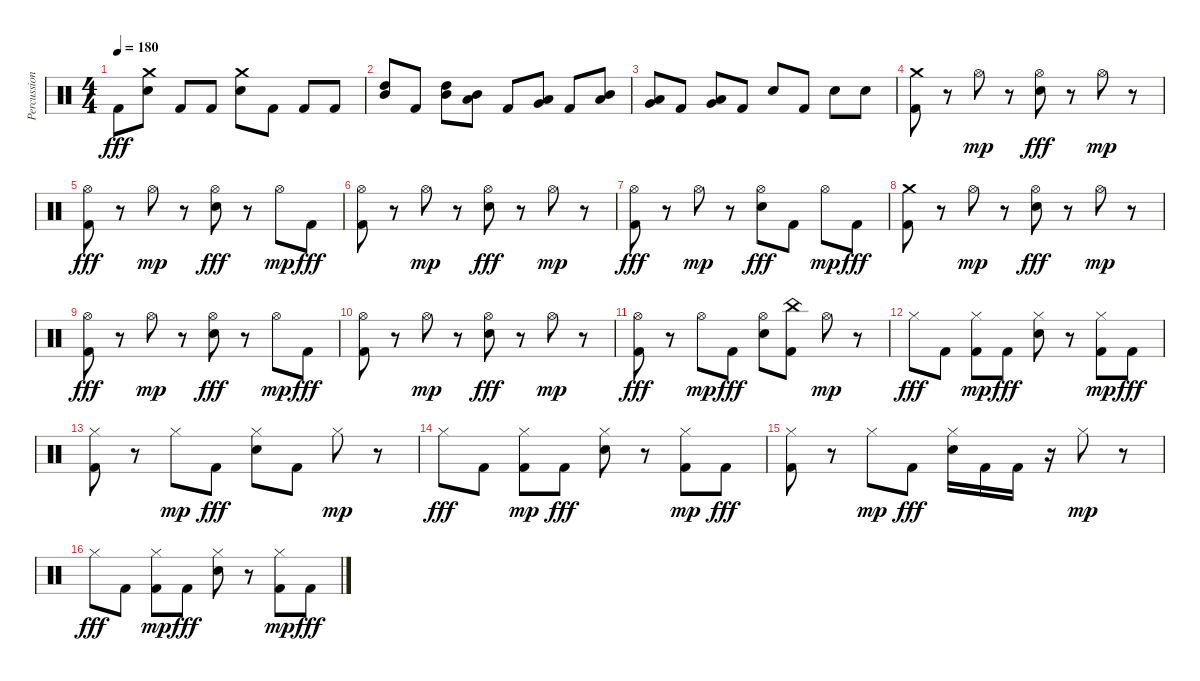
\track ("Percussion" "Percussion") {instrument percussion}
\staff {score}
\articulation defaults
\ts (4 4)
\tempo 180
\clef neutral
\ks c "Kick (hit) 2".8{dy fff}
("Snare (hit) 2" "Crash medium (hit)").8 "Kick (hit) 2".8 "Kick (hit) 2".8 ("Snare (hit) 2" "Crash medium (hit)").8 "Kick (hit) 2".8 "Kick (hit) 2".8 "Kick (hit) 2".8 |
("Mid Tom (hit)" "High Tom (hit)").8 "Kick (hit) 2".8 ("Mid Tom (hit)" "High Tom (hit)").8 ("Low Tom (hit)" "Mid Tom (hit)").8 "Kick (hit) 2".8 ("Very Low Tom (hit)" "Low Tom (hit)").8 "Kick (hit) 2".8 ("Low Tom (hit)" "Mid Tom (hit)").8 |
("Very Low Tom (hit)" "Low Tom (hit)").8 "Kick (hit) 2".8 ("Low Floor Tom (hit)" "Very Low Tom (hit)").8 "Kick (hit) 2".8 "Snare (hit) 2".8 "Kick (hit) 2".8 "Snare (hit) 2".8 "Snare (hit) 2".8 |
("Kick (hit) 2" "Crash medium (hit)").8 r.8 "Hi-Hat (open)".8{dy mp} r.8 ("Hi-Hat (open)" "Snare (hit) 2").8{dy fff} r.8 "Hi-Hat (open)".8{dy mp} r.8 |
("Hi-Hat (open)" "Kick (hit) 2").8{dy fff} r.8 "Hi-Hat (open)".8{dy mp} r.8 ("Hi-Hat (open)" "Snare (hit) 2").8{dy fff} r.8 "Hi-Hat (open)".8{dy mp} "Kick (hit) 2".8{dy fff} |
("Hi-Hat (open)" "Kick (hit) 2").8 r.8 "Hi-Hat (open)".8{dy mp} r.8 ("Hi-Hat (open)" "Snare (hit) 2").8{dy fff} r.8 "Hi-Hat (open)".8{dy mp} r.8 |
("Hi-Hat (open)" "Kick (hit) 2").8{dy fff} r.8 "Hi-Hat (open)".8{dy mp} r.8 ("Hi-Hat (open)" "Snare (hit) 2").8{dy fff} "Kick (hit) 2".8 "Hi-Hat (open)".8{dy mp} "Kick (hit) 2".8{dy fff} |
("Kick (hit) 2" "Crash medium (hit)").8 r.8 "Hi-Hat (open)".8{dy mp} r.8 ("Hi-Hat (open)" "Snare (hit) 2").8{dy fff} r.8 "Hi-Hat (open)".8{dy mp} r.8 |
("Hi-Hat (open)" "Kick (hit) 2").8{dy fff} r.8 "Hi-Hat (open)".8{dy mp} r.8 ("Hi-Hat (open)" "Snare (hit) 2").8{dy fff} r.8 "Hi-Hat (open)".8{dy mp} "Kick (hit) 2".8{dy fff} |
("Hi-Hat (open)" "Kick (hit) 2").8 r.8 "Hi-Hat (open)".8{dy mp} r.8 ("Hi-Hat (open)" "Snare (hit) 2").8{dy fff} r.8 "Hi-Hat (open)".8{dy mp} r.8 |
("Hi-Hat (open)" "Kick (hit) 2").8{dy fff} r.8 "Hi-Hat (open)".8{dy mp} "Kick (hit) 2".8{dy fff} ("Hi-Hat (open)" "Snare (hit) 2").8 ("Kick (hit) 2" "China (hit)").8 "Hi-Hat (open)".8{dy mp} r.8 |
"Hi-Hat (closed)".8{dy fff} "Kick (hit) 2".8 ("Kick (hit) 2" "Hi-Hat (closed)").8{dy mp} "Kick (hit) 2".8{dy fff} ("Snare (hit) 2" "Hi-Hat (closed)").8 r.8 ("Kick (hit) 2" "Hi-Hat (closed)").8{dy mp} "Kick (hit) 2".8{dy fff} |
("Kick (hit) 2" "Hi-Hat (closed)").8 r.8 "Hi-Hat (closed)".8{dy mp} "Kick (hit) 2".8{dy fff} ("Snare (hit) 2" "Hi-Hat (closed)").8 "Kick (hit) 2".8 "Hi-Hat (closed)".8{dy mp} r.8 |
"Hi-Hat (closed)".8{dy fff} "Kick (hit) 2".8 ("Kick (hit) 2" "Hi-Hat (closed)").8{dy mp} "Kick (hit) 2".8{dy fff} ("Snare (hit) 2" "Hi-Hat (closed)").8 r.8 ("Kick (hit) 2" "Hi-Hat (closed)").8{dy mp} "Kick (hit) 2".8{dy fff} |
("Kick (hit) 2" "Hi-Hat (closed)").8 r.8 "Hi-Hat (closed)".8{dy mp} "Kick (hit) 2".8{dy fff} ("Snare (hit) 2" "Hi-Hat (closed)").16 "Kick (hit) 2".16 "Kick (hit) 2".16 r.16 "Hi-Hat (closed)".8{dy mp} r.8 |
"Hi-Hat (closed)".8{dy fff} "Kick (hit) 2".8 ("Kick (hit) 2" "Hi-Hat (closed)").8{dy mp} "Kick (hit) 2".8{dy fff} ("Snare (hit) 2" "Hi-Hat (closed)").8 r.8 ("Kick (hit) 2" "Hi-Hat (closed)").8{dy mp} "Kick (hit) 2".8{dy fff}
